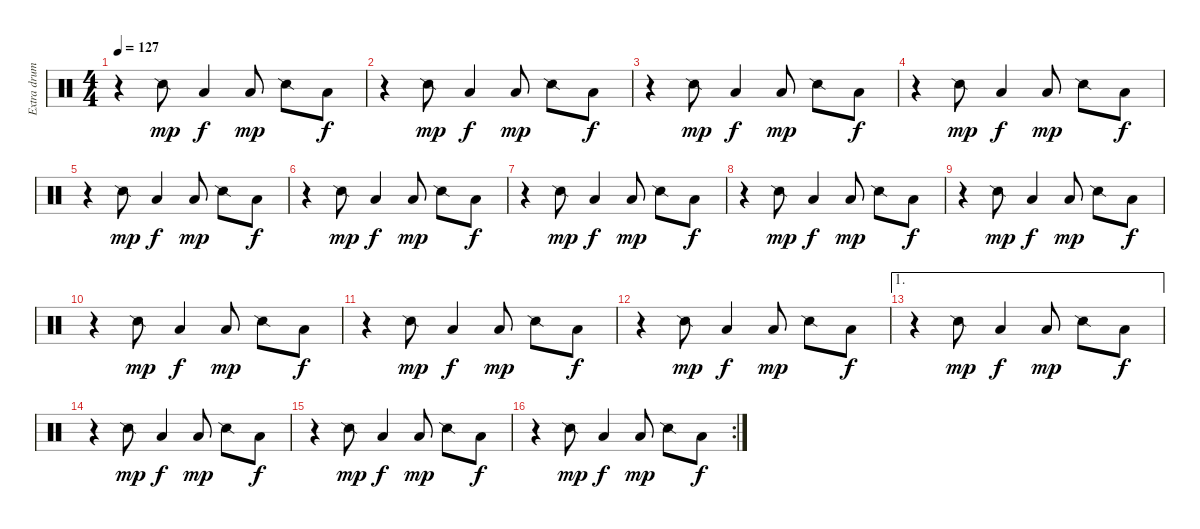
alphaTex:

\track ("Extra drums" "Extra drum") {instrument percussion}
\staff {score}
\articulation defaults
\ts (4 4)
\tempo 127
\clef neutral
\ks c
r.4{dy f} "Snare (side stick) 2".8{dy mp} "Low Tom (hit)".4{dy f} "Low Tom (hit)".8{dy mp} "Snare (side stick) 2".8 "Low Tom (hit)".8{dy f} |
r.4 "Snare (side stick) 2".8{dy mp} "Low Tom (hit)".4{dy f} "Low Tom (hit)".8{dy mp} "Snare (side stick) 2".8 "Low Tom (hit)".8{dy f} |
r.4 "Snare (side stick) 2".8{dy mp} "Low Tom (hit)".4{dy f} "Low Tom (hit)".8{dy mp} "Snare (side stick) 2".8 "Low Tom (hit)".8{dy f} |
r.4 "Snare (side stick) 2".8{dy mp} "Low Tom (hit)".4{dy f} "Low Tom (hit)".8{dy mp} "Snare (side stick) 2".8 "Low Tom (hit)".8{dy f} |
r.4 "Snare (side stick) 2".8{dy mp} "Low Tom (hit)".4{dy f} "Low Tom (hit)".8{dy mp} "Snare (side stick) 2".8 "Low Tom (hit)".8{dy f} |
r.4 "Snare (side stick) 2".8{dy mp} "Low Tom (hit)".4{dy f} "Low Tom (hit)".8{dy mp} "Snare (side stick) 2".8 "Low Tom (hit)".8{dy f} |
r.4 "Snare (side stick) 2".8{dy mp} "Low Tom (hit)".4{dy f} "Low Tom (hit)".8{dy mp} "Snare (side stick) 2".8 "Low Tom (hit)".8{dy f} |
r.4 "Snare (side stick) 2".8{dy mp} "Low Tom (hit)".4{dy f} "Low Tom (hit)".8{dy mp} "Snare (side stick) 2".8 "Low Tom (hit)".8{dy f} |
r.4 "Snare (side stick) 2".8{dy mp} "Low Tom (hit)".4{dy f} "Low Tom (hit)".8{dy mp} "Snare (side stick) 2".8 "Low Tom (hit)".8{dy f} |
r.4 "Snare (side stick) 2".8{dy mp} "Low Tom (hit)".4{dy f} "Low Tom (hit)".8{dy mp} "Snare (side stick) 2".8 "Low Tom (hit)".8{dy f} |
r.4 "Snare (side stick) 2".8{dy mp} "Low Tom (hit)".4{dy f} "Low Tom (hit)".8{dy mp} "Snare (side stick) 2".8 "Low Tom (hit)".8{dy f} |
r.4 "Snare (side stick) 2".8{dy mp} "Low Tom (hit)".4{dy f} "Low Tom (hit)".8{dy mp} "Snare (side stick) 2".8 "Low Tom (hit)".8{dy f} |
\ae 1
r.4 "Snare (side stick) 2".8{dy mp} "Low Tom (hit)".4{dy f} "Low Tom (hit)".8{dy mp} "Snare (side stick) 2".8 "Low Tom (hit)".8{dy f} |
r.4 "Snare (side stick) 2".8{dy mp} "Low Tom (hit)".4{dy f} "Low Tom (hit)".8{dy mp} "Snare (side stick) 2".8 "Low Tom (hit)".8{dy f} |
r.4 "Snare (side stick) 2".8{dy mp} "Low Tom (hit)".4{dy f} "Low Tom (hit)".8{dy mp} "Snare (side stick) 2".8 "Low Tom (hit)".8{dy f} |
\rc 2
r.4 "Snare (side stick) 2".8{dy mp} "Low Tom (hit)".4{dy f} "Low Tom (hit)".8{dy mp} "Snare (side stick) 2".8 "Low Tom (hit)".8{dy f}
